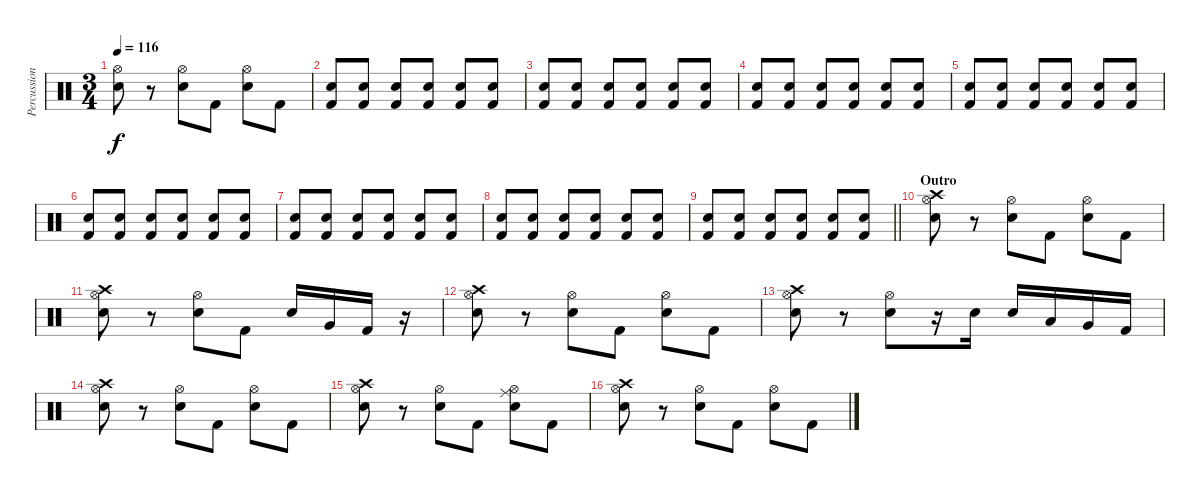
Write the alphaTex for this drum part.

\track ("Percussion" "Percussion") {instrument percussion}
\staff {score}
\articulation defaults
\ts (3 4)
\tempo 116
\clef neutral
\ks c
("Hi-Hat (open)" "Electric Snare (hit)").8{dy f} r.8 ("Hi-Hat (open)" "Electric Snare (hit)").8 "Kick (hit) 2".8 ("Hi-Hat (open)" "Electric Snare (hit)").8 "Kick (hit) 2".8 |
("Electric Snare (hit)" "Kick (hit) 2").8 ("Electric Snare (hit)" "Kick (hit) 2").8 ("Electric Snare (hit)" "Kick (hit) 2").8 ("Electric Snare (hit)" "Kick (hit) 2").8 ("Electric Snare (hit)" "Kick (hit) 2").8 ("Electric Snare (hit)" "Kick (hit) 2").8 |
("Electric Snare (hit)" "Kick (hit) 2").8 ("Electric Snare (hit)" "Kick (hit) 2").8 ("Electric Snare (hit)" "Kick (hit) 2").8 ("Electric Snare (hit)" "Kick (hit) 2").8 ("Electric Snare (hit)" "Kick (hit) 2").8 ("Electric Snare (hit)" "Kick (hit) 2").8 |
("Electric Snare (hit)" "Kick (hit) 2").8 ("Electric Snare (hit)" "Kick (hit) 2").8 ("Electric Snare (hit)" "Kick (hit) 2").8 ("Electric Snare (hit)" "Kick (hit) 2").8 ("Electric Snare (hit)" "Kick (hit) 2").8 ("Electric Snare (hit)" "Kick (hit) 2").8 |
("Electric Snare (hit)" "Kick (hit) 2").8 ("Electric Snare (hit)" "Kick (hit) 2").8 ("Electric Snare (hit)" "Kick (hit) 2").8 ("Electric Snare (hit)" "Kick (hit) 2").8 ("Electric Snare (hit)" "Kick (hit) 2").8 ("Electric Snare (hit)" "Kick (hit) 2").8 |
("Electric Snare (hit)" "Kick (hit) 2").8 ("Electric Snare (hit)" "Kick (hit) 2").8 ("Electric Snare (hit)" "Kick (hit) 2").8 ("Electric Snare (hit)" "Kick (hit) 2").8 ("Electric Snare (hit)" "Kick (hit) 2").8 ("Electric Snare (hit)" "Kick (hit) 2").8 |
("Electric Snare (hit)" "Kick (hit) 2").8 ("Electric Snare (hit)" "Kick (hit) 2").8 ("Electric Snare (hit)" "Kick (hit) 2").8 ("Electric Snare (hit)" "Kick (hit) 2").8 ("Electric Snare (hit)" "Kick (hit) 2").8 ("Electric Snare (hit)" "Kick (hit) 2").8 |
("Electric Snare (hit)" "Kick (hit) 2").8 ("Electric Snare (hit)" "Kick (hit) 2").8 ("Electric Snare (hit)" "Kick (hit) 2").8 ("Electric Snare (hit)" "Kick (hit) 2").8 ("Electric Snare (hit)" "Kick (hit) 2").8 ("Electric Snare (hit)" "Kick (hit) 2").8 |
\barLineRight lightlight
("Electric Snare (hit)" "Kick (hit) 2").8 ("Electric Snare (hit)" "Kick (hit) 2").8 ("Electric Snare (hit)" "Kick (hit) 2").8 ("Electric Snare (hit)" "Kick (hit) 2").8 ("Electric Snare (hit)" "Kick (hit) 2").8 ("Electric Snare (hit)" "Kick (hit) 2").8 |
\section ("" "Outro")
("Crash high (hit)" "Hi-Hat (open)" "Electric Snare (hit)").8 r.8 ("Hi-Hat (open)" "Electric Snare (hit)").8 "Kick (hit) 2".8 ("Hi-Hat (open)" "Electric Snare (hit)").8 "Kick (hit) 2".8 |
("Crash high (hit)" "Hi-Hat (open)" "Electric Snare (hit)").8 r.8 ("Hi-Hat (open)" "Electric Snare (hit)").8 "Kick (hit) 2".8 "Electric Snare (hit)".16 "Very Low Tom (hit)".16 "Kick (hit) 2".16 r.16 |
("Crash high (hit)" "Hi-Hat (open)" "Electric Snare (hit)").8 r.8 ("Hi-Hat (open)" "Electric Snare (hit)").8 "Kick (hit) 2".8 ("Hi-Hat (open)" "Electric Snare (hit)").8 "Kick (hit) 2".8 |
("Crash high (hit)" "Hi-Hat (open)" "Electric Snare (hit)").8 r.8 ("Hi-Hat (open)" "Electric Snare (hit)").8 r.16 "Electric Snare (hit)".16 "Electric Snare (hit)".16 "Low Tom (hit)".16 "Very Low Tom (hit)".16 "Kick (hit) 2".16 |
("Crash high (hit)" "Hi-Hat (open)" "Electric Snare (hit)").8 r.8 ("Hi-Hat (open)" "Electric Snare (hit)").8 "Kick (hit) 2".8 ("Hi-Hat (open)" "Electric Snare (hit)").8 "Kick (hit) 2".8 |
("Crash high (hit)" "Hi-Hat (open)" "Electric Snare (hit)").8 r.8 ("Hi-Hat (open)" "Electric Snare (hit)").8 "Kick (hit) 2".8 ("Ride (middle)" "Hi-Hat (open)" "Electric Snare (hit)").8 "Kick (hit) 2".8 |
("Crash high (hit)" "Hi-Hat (open)" "Electric Snare (hit)").8 r.8 ("Hi-Hat (open)" "Electric Snare (hit)").8 "Kick (hit) 2".8 ("Hi-Hat (open)" "Electric Snare (hit)").8 "Kick (hit) 2".8
